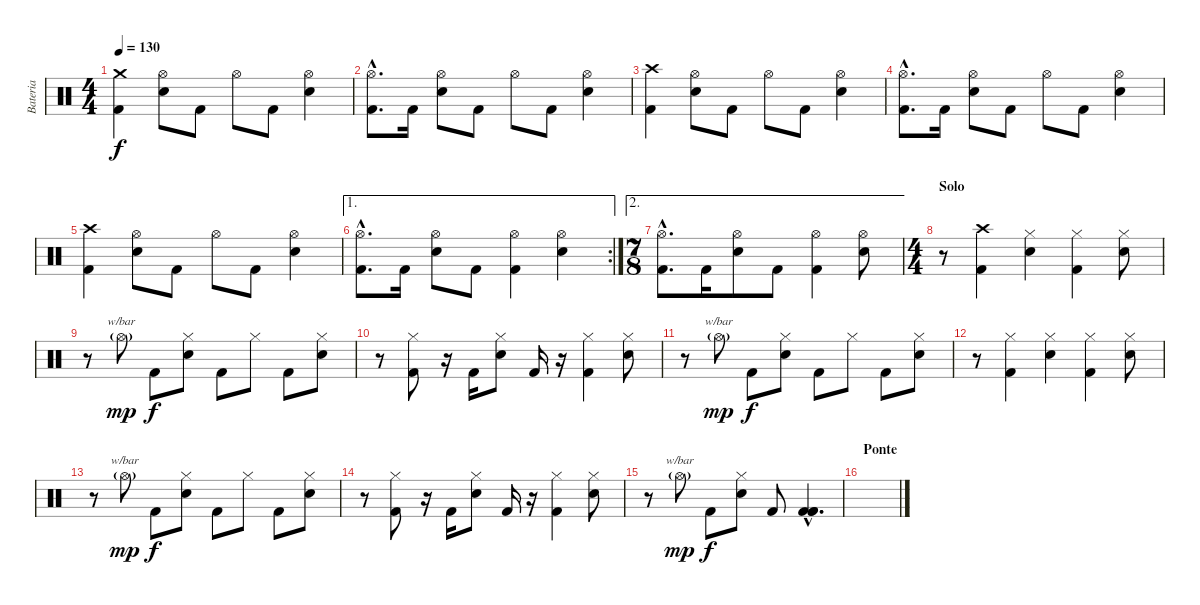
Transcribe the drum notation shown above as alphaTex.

\track ("Bateria" "Bateria") {instrument percussion}
\staff {score}
\articulation defaults
\ts (4 4)
\tempo 130
\clef neutral
\ks c
("Crash medium (hit)" "Kick (hit) 2").4{dy f} ("Hi-Hat (open)" "Electric Snare (hit)").8 "Kick (hit) 2".8 "Hi-Hat (open)".8 "Kick (hit) 2".8 ("Hi-Hat (open)" "Electric Snare (hit)").4 |
("Hi-Hat (open)"{hac} "Kick (hit) 2"{hac}).8{d} "Kick (hit) 2".16 ("Hi-Hat (open)" "Electric Snare (hit)").8 "Kick (hit) 2".8 "Hi-Hat (open)".8 "Kick (hit) 2".8 ("Hi-Hat (open)" "Electric Snare (hit)").4 |
("Crash high (hit)" "Kick (hit) 2").4 ("Hi-Hat (open)" "Electric Snare (hit)").8 "Kick (hit) 2".8 "Hi-Hat (open)".8 "Kick (hit) 2".8 ("Hi-Hat (open)" "Electric Snare (hit)").4 |
("Hi-Hat (open)"{hac} "Kick (hit) 2"{hac}).8{d} "Kick (hit) 2".16 ("Hi-Hat (open)" "Electric Snare (hit)").8 "Kick (hit) 2".8 "Hi-Hat (open)".8 "Kick (hit) 2".8 ("Hi-Hat (open)" "Electric Snare (hit)").4 |
("Crash high (hit)" "Kick (hit) 2").4 ("Hi-Hat (open)" "Electric Snare (hit)").8 "Kick (hit) 2".8 "Hi-Hat (open)".8 "Kick (hit) 2".8 ("Hi-Hat (open)" "Electric Snare (hit)").4 |
\ae 1
\rc 2
("Hi-Hat (open)"{hac} "Kick (hit) 2"{hac}).8{d} "Kick (hit) 2".16 ("Hi-Hat (open)" "Electric Snare (hit)").8 "Kick (hit) 2".8 ("Hi-Hat (open)" "Kick (hit) 2").4 ("Hi-Hat (open)" "Electric Snare (hit)").4 |
\ae 2
\ts (7 8)
("Hi-Hat (open)"{hac} "Kick (hit) 2"{hac}).8{d} "Kick (hit) 2".16 ("Hi-Hat (open)" "Electric Snare (hit)").8 "Kick (hit) 2".8 ("Hi-Hat (open)" "Kick (hit) 2").4 ("Hi-Hat (open)" "Electric Snare (hit)").8 |
\ts (4 4)
\section ("" "Solo")
r.8 ("Crash high (hit)" "Kick (hit) 2").4 ("Hi-Hat (closed)" "Electric Snare (hit)").4 ("Hi-Hat (closed)" "Kick (hit) 2").4 ("Hi-Hat (closed)" "Electric Snare (hit)").8 |
r.8 "Hi-Hat (open)"{g}.8{tbe (custom default 0 0 45 2 60 2) dy mp} "Kick (hit) 2".8{dy f} ("Hi-Hat (closed)" "Electric Snare (hit)").8 "Kick (hit) 2".8 "Hi-Hat (closed)".8 "Kick (hit) 2".8 ("Hi-Hat (closed)" "Electric Snare (hit)").8 |
r.8 ("Hi-Hat (closed)" "Kick (hit) 2").8 r.16 "Kick (hit) 2".16 ("Hi-Hat (closed)" "Electric Snare (hit)").8 "Kick (hit) 2".16 r.16 ("Hi-Hat (closed)" "Kick (hit) 2").4 ("Hi-Hat (closed)" "Electric Snare (hit)").8 |
r.8 "Hi-Hat (open)"{g}.8{tbe (custom default 0 0 45 2 60 2) dy mp} "Kick (hit) 2".8{dy f} ("Hi-Hat (closed)" "Electric Snare (hit)").8 "Kick (hit) 2".8 "Hi-Hat (closed)".8 "Kick (hit) 2".8 ("Hi-Hat (closed)" "Electric Snare (hit)").8 |
r.8 ("Hi-Hat (closed)" "Kick (hit) 2").4 ("Hi-Hat (closed)" "Electric Snare (hit)").4 ("Hi-Hat (closed)" "Kick (hit) 2").4 ("Hi-Hat (closed)" "Electric Snare (hit)").8 |
r.8 "Hi-Hat (open)"{g}.8{tbe (custom default 0 0 45 2 60 2) dy mp} "Kick (hit) 2".8{dy f} ("Hi-Hat (closed)" "Electric Snare (hit)").8 "Kick (hit) 2".8 "Hi-Hat (closed)".8 "Kick (hit) 2".8 ("Hi-Hat (closed)" "Electric Snare (hit)").8 |
r.8 ("Hi-Hat (closed)" "Kick (hit) 2").8 r.16 "Kick (hit) 2".16 ("Hi-Hat (closed)" "Electric Snare (hit)").8 "Kick (hit) 2".16 r.16 ("Hi-Hat (closed)" "Kick (hit) 2").4 ("Hi-Hat (closed)" "Electric Snare (hit)").8 |
r.8 "Hi-Hat (open)"{g}.8{tbe (custom default 0 0 45 2 60 2) dy mp} "Kick (hit) 2".8{dy f} ("Hi-Hat (closed)" "Electric Snare (hit)").8 "Kick (hit) 2".8 ("Kick (hit) 2"{hac} "Kick (hit) 2"{hac} "Kick (hit) 2"{hac}).4{d} |
\section ("" "Ponte")
